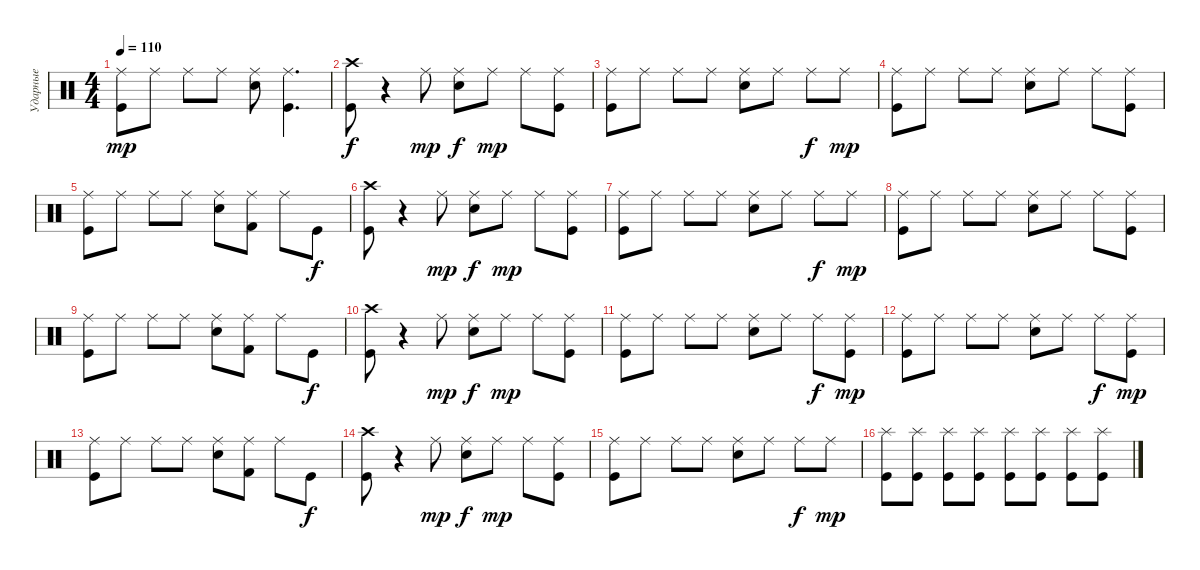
\track ("Ударные" "Ударные") {instrument percussion}
\staff {score}
\articulation defaults
\ts (4 4)
\tempo 110
\clef neutral
\ks c
("Ride (middle)" "Kick (hit)").8{dy mp} "Ride (middle)".8 "Ride (middle)".8 "Ride (middle)".8 ("Ride (middle)" "Snare (hit) 2").8 ("Ride (middle)" "Kick (hit)").4{d} |
("Crash high (hit)" "Kick (hit)").8{dy f} r.4 "Ride (middle)".8{dy mp} ("Ride (middle)" "Snare (hit) 2").8{dy f} "Ride (middle)".8{dy mp} "Ride (middle)".8 ("Ride (middle)" "Kick (hit)").8 |
("Ride (middle)" "Kick (hit)").8 "Ride (middle)".8 "Ride (middle)".8 "Ride (middle)".8 ("Ride (middle)" "Snare (hit) 2").8 "Ride (middle)".8 "Ride (middle)".8{dy f} "Ride (middle)".8{dy mp} |
("Ride (middle)" "Kick (hit)").8 "Ride (middle)".8 "Ride (middle)".8 "Ride (middle)".8 ("Ride (middle)" "Snare (hit) 2").8 "Ride (middle)".8 "Ride (middle)".8 ("Ride (middle)" "Kick (hit)").8 |
("Ride (middle)" "Kick (hit)").8 "Ride (middle)".8 "Ride (middle)".8 "Ride (middle)".8 ("Ride (middle)" "Snare (hit) 2").8 ("Ride (middle)" "Kick (hit) 2").8 "Ride (middle)".8 "Kick (hit)".8{dy f} |
("Crash high (hit)" "Kick (hit)").8 r.4 "Ride (middle)".8{dy mp} ("Ride (middle)" "Snare (hit) 2").8{dy f} "Ride (middle)".8{dy mp} "Ride (middle)".8 ("Ride (middle)" "Kick (hit)").8 |
("Ride (middle)" "Kick (hit)").8 "Ride (middle)".8 "Ride (middle)".8 "Ride (middle)".8 ("Ride (middle)" "Snare (hit) 2").8 "Ride (middle)".8 "Ride (middle)".8{dy f} "Ride (middle)".8{dy mp} |
("Ride (middle)" "Kick (hit)").8 "Ride (middle)".8 "Ride (middle)".8 "Ride (middle)".8 ("Ride (middle)" "Snare (hit) 2").8 "Ride (middle)".8 "Ride (middle)".8 ("Ride (middle)" "Kick (hit)").8 |
("Ride (middle)" "Kick (hit)").8 "Ride (middle)".8 "Ride (middle)".8 "Ride (middle)".8 ("Ride (middle)" "Snare (hit) 2").8 ("Ride (middle)" "Kick (hit) 2").8 "Ride (middle)".8 "Kick (hit)".8{dy f} |
("Crash high (hit)" "Kick (hit)").8 r.4 "Ride (middle)".8{dy mp} ("Ride (middle)" "Snare (hit) 2").8{dy f} "Ride (middle)".8{dy mp} "Ride (middle)".8 ("Ride (middle)" "Kick (hit)").8 |
("Ride (middle)" "Kick (hit)").8 "Ride (middle)".8 "Ride (middle)".8 "Ride (middle)".8 ("Ride (middle)" "Snare (hit) 2").8 "Ride (middle)".8 "Ride (middle)".8{dy f} ("Ride (middle)" "Kick (hit)").8{dy mp} |
("Ride (middle)" "Kick (hit)").8 "Ride (middle)".8 "Ride (middle)".8 "Ride (middle)".8 ("Ride (middle)" "Snare (hit) 2").8 "Ride (middle)".8 "Ride (middle)".8{dy f} ("Ride (middle)" "Kick (hit)").8{dy mp} |
("Ride (middle)" "Kick (hit)").8 "Ride (middle)".8 "Ride (middle)".8 "Ride (middle)".8 ("Ride (middle)" "Snare (hit) 2").8 ("Ride (middle)" "Kick (hit) 2").8 "Ride (middle)".8 "Kick (hit)".8{dy f} |
("Crash high (hit)" "Kick (hit)").8 r.4 "Ride (middle)".8{dy mp} ("Ride (middle)" "Snare (hit) 2").8{dy f} "Ride (middle)".8{dy mp} "Ride (middle)".8 ("Ride (middle)" "Kick (hit)").8 |
("Ride (middle)" "Kick (hit)").8 "Ride (middle)".8 "Ride (middle)".8 "Ride (middle)".8 ("Ride (middle)" "Snare (hit) 2").8 "Ride (middle)".8 "Ride (middle)".8{dy f} "Ride (middle)".8{dy mp} |
("Splash (hit)" "Kick (hit)").8 ("Splash (hit)" "Kick (hit)").8 ("Splash (hit)" "Kick (hit)").8 ("Splash (hit)" "Kick (hit)").8 ("Splash (hit)" "Kick (hit)").8 ("Splash (hit)" "Kick (hit)").8 ("Splash (hit)" "Kick (hit)").8 ("Splash (hit)" "Kick (hit)").8
